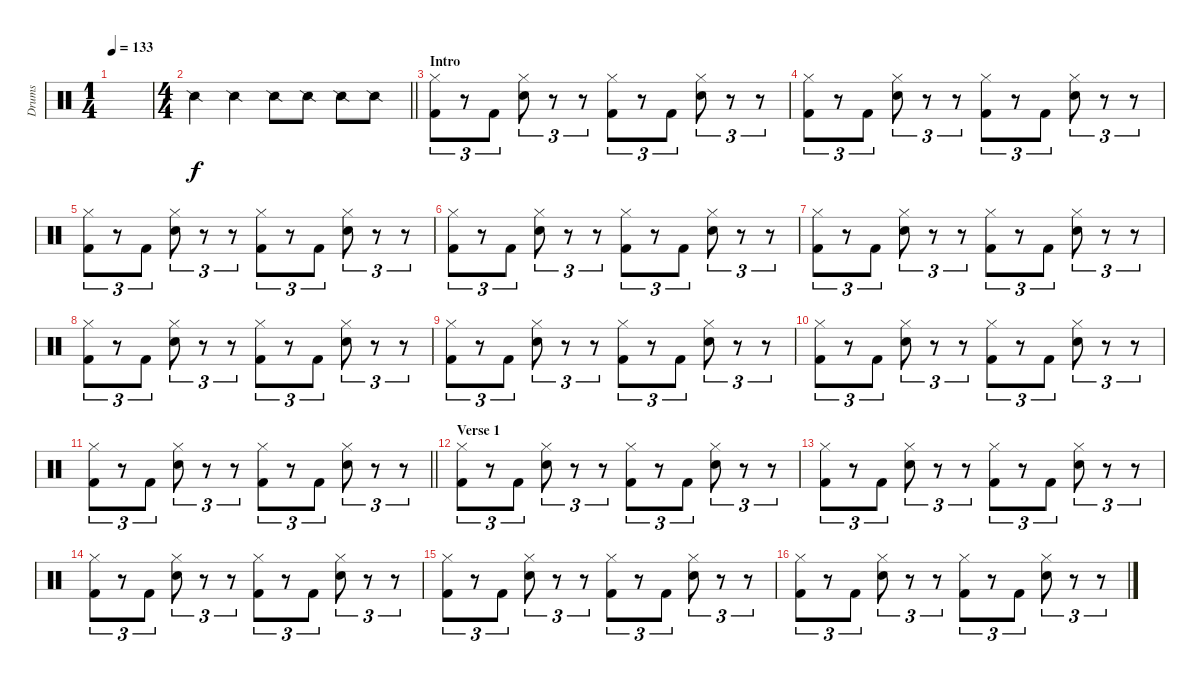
\track ("Drums" "Drums") {instrument percussion}
\staff {score}
\articulation defaults
\ts (1 4)
\tempo 133
\clef neutral
\ks c
|
\ts (4 4)
\barLineRight lightlight "Snare (side stick) 2".4 "Snare (side stick) 2".4 "Snare (side stick) 2".8 "Snare (side stick) 2".8 "Snare (side stick) 2".8 "Snare (side stick) 2".8
|
\section ("" "Intro")
("Hi-Hat (closed)" "Kick (hit) 2").8{tu (3 2)} r.8{tu (3 2)} "Kick (hit) 2".8{tu (3 2)} ("Hi-Hat (closed)" "Snare (hit) 2").8{tu (3 2)} r.8{tu (3 2)} r.8{tu (3 2)} ("Hi-Hat (closed)" "Kick (hit) 2").8{tu (3 2)} r.8{tu (3 2)} "Kick (hit) 2".8{tu (3 2)} ("Hi-Hat (closed)" "Snare (hit) 2").8{tu (3 2)} r.8{tu (3 2)} r.8{tu (3 2)} |
("Hi-Hat (closed)" "Kick (hit) 2").8{tu (3 2)} r.8{tu (3 2)} "Kick (hit) 2".8{tu (3 2)} ("Hi-Hat (closed)" "Snare (hit) 2").8{tu (3 2)} r.8{tu (3 2)} r.8{tu (3 2)} ("Hi-Hat (closed)" "Kick (hit) 2").8{tu (3 2)} r.8{tu (3 2)} "Kick (hit) 2".8{tu (3 2)} ("Hi-Hat (closed)" "Snare (hit) 2").8{tu (3 2)} r.8{tu (3 2)} r.8{tu (3 2)} |
("Hi-Hat (closed)" "Kick (hit) 2").8{tu (3 2)} r.8{tu (3 2)} "Kick (hit) 2".8{tu (3 2)} ("Hi-Hat (closed)" "Snare (hit) 2").8{tu (3 2)} r.8{tu (3 2)} r.8{tu (3 2)} ("Hi-Hat (closed)" "Kick (hit) 2").8{tu (3 2)} r.8{tu (3 2)} "Kick (hit) 2".8{tu (3 2)} ("Hi-Hat (closed)" "Snare (hit) 2").8{tu (3 2)} r.8{tu (3 2)} r.8{tu (3 2)} |
("Hi-Hat (closed)" "Kick (hit) 2").8{tu (3 2)} r.8{tu (3 2)} "Kick (hit) 2".8{tu (3 2)} ("Hi-Hat (closed)" "Snare (hit) 2").8{tu (3 2)} r.8{tu (3 2)} r.8{tu (3 2)} ("Hi-Hat (closed)" "Kick (hit) 2").8{tu (3 2)} r.8{tu (3 2)} "Kick (hit) 2".8{tu (3 2)} ("Hi-Hat (closed)" "Snare (hit) 2").8{tu (3 2)} r.8{tu (3 2)} r.8{tu (3 2)} |
("Hi-Hat (closed)" "Kick (hit) 2").8{tu (3 2)} r.8{tu (3 2)} "Kick (hit) 2".8{tu (3 2)} ("Hi-Hat (closed)" "Snare (hit) 2").8{tu (3 2)} r.8{tu (3 2)} r.8{tu (3 2)} ("Hi-Hat (closed)" "Kick (hit) 2").8{tu (3 2)} r.8{tu (3 2)} "Kick (hit) 2".8{tu (3 2)} ("Hi-Hat (closed)" "Snare (hit) 2").8{tu (3 2)} r.8{tu (3 2)} r.8{tu (3 2)} |
("Hi-Hat (closed)" "Kick (hit) 2").8{tu (3 2)} r.8{tu (3 2)} "Kick (hit) 2".8{tu (3 2)} ("Hi-Hat (closed)" "Snare (hit) 2").8{tu (3 2)} r.8{tu (3 2)} r.8{tu (3 2)} ("Hi-Hat (closed)" "Kick (hit) 2").8{tu (3 2)} r.8{tu (3 2)} "Kick (hit) 2".8{tu (3 2)} ("Hi-Hat (closed)" "Snare (hit) 2").8{tu (3 2)} r.8{tu (3 2)} r.8{tu (3 2)} |
("Hi-Hat (closed)" "Kick (hit) 2").8{tu (3 2)} r.8{tu (3 2)} "Kick (hit) 2".8{tu (3 2)} ("Hi-Hat (closed)" "Snare (hit) 2").8{tu (3 2)} r.8{tu (3 2)} r.8{tu (3 2)} ("Hi-Hat (closed)" "Kick (hit) 2").8{tu (3 2)} r.8{tu (3 2)} "Kick (hit) 2".8{tu (3 2)} ("Hi-Hat (closed)" "Snare (hit) 2").8{tu (3 2)} r.8{tu (3 2)} r.8{tu (3 2)} |
("Hi-Hat (closed)" "Kick (hit) 2").8{tu (3 2)} r.8{tu (3 2)} "Kick (hit) 2".8{tu (3 2)} ("Hi-Hat (closed)" "Snare (hit) 2").8{tu (3 2)} r.8{tu (3 2)} r.8{tu (3 2)} ("Hi-Hat (closed)" "Kick (hit) 2").8{tu (3 2)} r.8{tu (3 2)} "Kick (hit) 2".8{tu (3 2)} ("Hi-Hat (closed)" "Snare (hit) 2").8{tu (3 2)} r.8{tu (3 2)} r.8{tu (3 2)} |
\barLineRight lightlight
("Hi-Hat (closed)" "Kick (hit) 2").8{tu (3 2)} r.8{tu (3 2)} "Kick (hit) 2".8{tu (3 2)} ("Hi-Hat (closed)" "Snare (hit) 2").8{tu (3 2)} r.8{tu (3 2)} r.8{tu (3 2)} ("Hi-Hat (closed)" "Kick (hit) 2").8{tu (3 2)} r.8{tu (3 2)} "Kick (hit) 2".8{tu (3 2)} ("Hi-Hat (closed)" "Snare (hit) 2").8{tu (3 2)} r.8{tu (3 2)} r.8{tu (3 2)} |
\section ("" "Verse 1")
("Hi-Hat (closed)" "Kick (hit) 2").8{tu (3 2)} r.8{tu (3 2)} "Kick (hit) 2".8{tu (3 2)} ("Hi-Hat (closed)" "Snare (hit) 2").8{tu (3 2)} r.8{tu (3 2)} r.8{tu (3 2)} ("Hi-Hat (closed)" "Kick (hit) 2").8{tu (3 2)} r.8{tu (3 2)} "Kick (hit) 2".8{tu (3 2)} ("Hi-Hat (closed)" "Snare (hit) 2").8{tu (3 2)} r.8{tu (3 2)} r.8{tu (3 2)} |
("Hi-Hat (closed)" "Kick (hit) 2").8{tu (3 2)} r.8{tu (3 2)} "Kick (hit) 2".8{tu (3 2)} ("Hi-Hat (closed)" "Snare (hit) 2").8{tu (3 2)} r.8{tu (3 2)} r.8{tu (3 2)} ("Hi-Hat (closed)" "Kick (hit) 2").8{tu (3 2)} r.8{tu (3 2)} "Kick (hit) 2".8{tu (3 2)} ("Hi-Hat (closed)" "Snare (hit) 2").8{tu (3 2)} r.8{tu (3 2)} r.8{tu (3 2)} |
("Hi-Hat (closed)" "Kick (hit) 2").8{tu (3 2)} r.8{tu (3 2)} "Kick (hit) 2".8{tu (3 2)} ("Hi-Hat (closed)" "Snare (hit) 2").8{tu (3 2)} r.8{tu (3 2)} r.8{tu (3 2)} ("Hi-Hat (closed)" "Kick (hit) 2").8{tu (3 2)} r.8{tu (3 2)} "Kick (hit) 2".8{tu (3 2)} ("Hi-Hat (closed)" "Snare (hit) 2").8{tu (3 2)} r.8{tu (3 2)} r.8{tu (3 2)} |
("Hi-Hat (closed)" "Kick (hit) 2").8{tu (3 2)} r.8{tu (3 2)} "Kick (hit) 2".8{tu (3 2)} ("Hi-Hat (closed)" "Snare (hit) 2").8{tu (3 2)} r.8{tu (3 2)} r.8{tu (3 2)} ("Hi-Hat (closed)" "Kick (hit) 2").8{tu (3 2)} r.8{tu (3 2)} "Kick (hit) 2".8{tu (3 2)} ("Hi-Hat (closed)" "Snare (hit) 2").8{tu (3 2)} r.8{tu (3 2)} r.8{tu (3 2)} |
("Hi-Hat (closed)" "Kick (hit) 2").8{tu (3 2)} r.8{tu (3 2)} "Kick (hit) 2".8{tu (3 2)} ("Hi-Hat (closed)" "Snare (hit) 2").8{tu (3 2)} r.8{tu (3 2)} r.8{tu (3 2)} ("Hi-Hat (closed)" "Kick (hit) 2").8{tu (3 2)} r.8{tu (3 2)} "Kick (hit) 2".8{tu (3 2)} ("Hi-Hat (closed)" "Snare (hit) 2").8{tu (3 2)} r.8{tu (3 2)} r.8{tu (3 2)}
